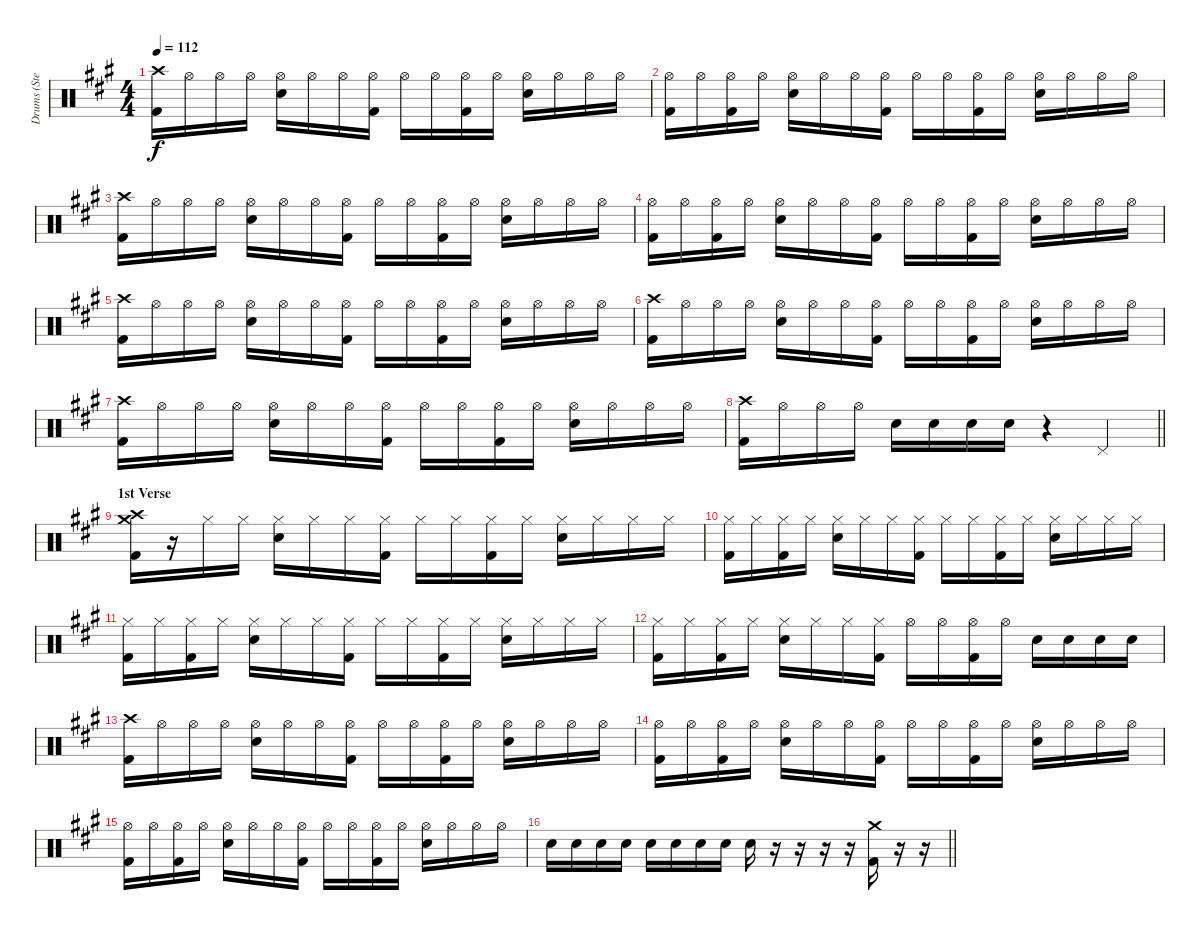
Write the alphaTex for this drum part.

\track ("Drums (Steven)" "Drums (Ste") {instrument percussion}
\staff {score}
\articulation defaults
\ts (4 4)
\tempo 112
\clef neutral
\ks f#minor
("Crash high (hit)" "Kick (hit) 2").16{dy f} "Hi-Hat (open)".16 "Hi-Hat (open)".16 "Hi-Hat (open)".16 ("Hi-Hat (open)" "Snare (hit) 2").16 "Hi-Hat (open)".16 "Hi-Hat (open)".16 ("Hi-Hat (open)" "Kick (hit) 2").16 "Hi-Hat (open)".16 "Hi-Hat (open)".16 ("Hi-Hat (open)" "Kick (hit) 2").16 "Hi-Hat (open)".16 ("Hi-Hat (open)" "Snare (hit) 2").16 "Hi-Hat (open)".16 "Hi-Hat (open)".16 "Hi-Hat (open)".16 |
("Hi-Hat (open)" "Kick (hit) 2").16 "Hi-Hat (open)".16 ("Hi-Hat (open)" "Kick (hit) 2").16 "Hi-Hat (open)".16 ("Hi-Hat (open)" "Snare (hit) 2").16 "Hi-Hat (open)".16 "Hi-Hat (open)".16 ("Hi-Hat (open)" "Kick (hit) 2").16 "Hi-Hat (open)".16 "Hi-Hat (open)".16 ("Hi-Hat (open)" "Kick (hit) 2").16 "Hi-Hat (open)".16 ("Hi-Hat (open)" "Snare (hit) 2").16 "Hi-Hat (open)".16 "Hi-Hat (open)".16 "Hi-Hat (open)".16 |
("Crash high (hit)" "Kick (hit) 2").16 "Hi-Hat (open)".16 "Hi-Hat (open)".16 "Hi-Hat (open)".16 ("Hi-Hat (open)" "Snare (hit) 2").16 "Hi-Hat (open)".16 "Hi-Hat (open)".16 ("Hi-Hat (open)" "Kick (hit) 2").16 "Hi-Hat (open)".16 "Hi-Hat (open)".16 ("Hi-Hat (open)" "Kick (hit) 2").16 "Hi-Hat (open)".16 ("Hi-Hat (open)" "Snare (hit) 2").16 "Hi-Hat (open)".16 "Hi-Hat (open)".16 "Hi-Hat (open)".16 |
("Hi-Hat (open)" "Kick (hit) 2").16 "Hi-Hat (open)".16 ("Hi-Hat (open)" "Kick (hit) 2").16 "Hi-Hat (open)".16 ("Hi-Hat (open)" "Snare (hit) 2").16 "Hi-Hat (open)".16 "Hi-Hat (open)".16 ("Hi-Hat (open)" "Kick (hit) 2").16 "Hi-Hat (open)".16 "Hi-Hat (open)".16 ("Hi-Hat (open)" "Kick (hit) 2").16 "Hi-Hat (open)".16 ("Hi-Hat (open)" "Snare (hit) 2").16 "Hi-Hat (open)".16 "Hi-Hat (open)".16 "Hi-Hat (open)".16 |
("Crash high (hit)" "Kick (hit) 2").16 "Hi-Hat (open)".16 "Hi-Hat (open)".16 "Hi-Hat (open)".16 ("Hi-Hat (open)" "Snare (hit) 2").16 "Hi-Hat (open)".16 "Hi-Hat (open)".16 ("Hi-Hat (open)" "Kick (hit) 2").16 "Hi-Hat (open)".16 "Hi-Hat (open)".16 ("Hi-Hat (open)" "Kick (hit) 2").16 "Hi-Hat (open)".16 ("Hi-Hat (open)" "Snare (hit) 2").16 "Hi-Hat (open)".16 "Hi-Hat (open)".16 "Hi-Hat (open)".16 |
("Crash high (hit)" "Kick (hit) 2").16 "Hi-Hat (open)".16 "Hi-Hat (open)".16 "Hi-Hat (open)".16 ("Hi-Hat (open)" "Snare (hit) 2").16 "Hi-Hat (open)".16 "Hi-Hat (open)".16 ("Hi-Hat (open)" "Kick (hit) 2").16 "Hi-Hat (open)".16 "Hi-Hat (open)".16 ("Hi-Hat (open)" "Kick (hit) 2").16 "Hi-Hat (open)".16 ("Hi-Hat (open)" "Snare (hit) 2").16 "Hi-Hat (open)".16 "Hi-Hat (open)".16 "Hi-Hat (open)".16 |
("Crash high (hit)" "Kick (hit) 2").16 "Hi-Hat (open)".16 "Hi-Hat (open)".16 "Hi-Hat (open)".16 ("Hi-Hat (open)" "Snare (hit) 2").16 "Hi-Hat (open)".16 "Hi-Hat (open)".16 ("Hi-Hat (open)" "Kick (hit) 2").16 "Hi-Hat (open)".16 "Hi-Hat (open)".16 ("Hi-Hat (open)" "Kick (hit) 2").16 "Hi-Hat (open)".16 ("Hi-Hat (open)" "Snare (hit) 2").16 "Hi-Hat (open)".16 "Hi-Hat (open)".16 "Hi-Hat (open)".16 |
\barLineRight lightlight
("Crash high (hit)" "Kick (hit) 2").16 "Hi-Hat (open)".16 "Hi-Hat (open)".16 "Hi-Hat (open)".16 "Snare (hit) 2".16 "Snare (hit) 2".16 "Snare (hit) 2".16 "Snare (hit) 2".16 r.4 "Pedal Hi-Hat (hit)".4 |
\section ("" "1st Verse")
("Crash high (hit)" "Crash medium (hit)" "Kick (hit) 2").16 r.16 "Hi-Hat (closed)".16 "Hi-Hat (closed)".16 ("Hi-Hat (closed)" "Snare (hit) 2").16 "Hi-Hat (closed)".16 "Hi-Hat (closed)".16 ("Hi-Hat (closed)" "Kick (hit) 2").16 "Hi-Hat (closed)".16 "Hi-Hat (closed)".16 ("Hi-Hat (closed)" "Kick (hit) 2").16 "Hi-Hat (closed)".16 ("Hi-Hat (closed)" "Snare (hit) 2").16 "Hi-Hat (closed)".16 "Hi-Hat (closed)".16 "Hi-Hat (closed)".16 |
("Hi-Hat (closed)" "Kick (hit) 2").16 "Hi-Hat (closed)".16 ("Hi-Hat (closed)" "Kick (hit) 2").16 "Hi-Hat (closed)".16 ("Hi-Hat (closed)" "Snare (hit) 2").16 "Hi-Hat (closed)".16 "Hi-Hat (closed)".16 ("Hi-Hat (closed)" "Kick (hit) 2").16 "Hi-Hat (closed)".16 "Hi-Hat (closed)".16 ("Hi-Hat (closed)" "Kick (hit) 2").16 "Hi-Hat (closed)".16 ("Hi-Hat (closed)" "Snare (hit) 2").16 "Hi-Hat (closed)".16 "Hi-Hat (closed)".16 "Hi-Hat (closed)".16 |
("Hi-Hat (closed)" "Kick (hit) 2").16 "Hi-Hat (closed)".16 ("Hi-Hat (closed)" "Kick (hit) 2").16 "Hi-Hat (closed)".16 ("Hi-Hat (closed)" "Snare (hit) 2").16 "Hi-Hat (closed)".16 "Hi-Hat (closed)".16 ("Hi-Hat (closed)" "Kick (hit) 2").16 "Hi-Hat (closed)".16 "Hi-Hat (closed)".16 ("Hi-Hat (closed)" "Kick (hit) 2").16 "Hi-Hat (closed)".16 ("Hi-Hat (closed)" "Snare (hit) 2").16 "Hi-Hat (closed)".16 "Hi-Hat (closed)".16 "Hi-Hat (closed)".16 |
("Hi-Hat (closed)" "Kick (hit) 2").16 "Hi-Hat (closed)".16 ("Hi-Hat (closed)" "Kick (hit) 2").16 "Hi-Hat (closed)".16 ("Hi-Hat (closed)" "Snare (hit) 2").16 "Hi-Hat (closed)".16 "Hi-Hat (closed)".16 ("Hi-Hat (closed)" "Kick (hit) 2").16 "Hi-Hat (open)".16 "Hi-Hat (open)".16 ("Hi-Hat (open)" "Kick (hit) 2").16 "Hi-Hat (open)".16 "Snare (hit) 2".16 "Snare (hit) 2".16 "Snare (hit) 2".16 "Snare (hit) 2".16 |
("Crash high (hit)" "Kick (hit) 2").16 "Hi-Hat (open)".16 "Hi-Hat (open)".16 "Hi-Hat (open)".16 ("Hi-Hat (open)" "Snare (hit) 2").16 "Hi-Hat (open)".16 "Hi-Hat (open)".16 ("Hi-Hat (open)" "Kick (hit) 2").16 "Hi-Hat (open)".16 "Hi-Hat (open)".16 ("Hi-Hat (open)" "Kick (hit) 2").16 "Hi-Hat (open)".16 ("Hi-Hat (open)" "Snare (hit) 2").16 "Hi-Hat (open)".16 "Hi-Hat (open)".16 "Hi-Hat (open)".16 |
("Hi-Hat (open)" "Kick (hit) 2").16 "Hi-Hat (open)".16 ("Hi-Hat (open)" "Kick (hit) 2").16 "Hi-Hat (open)".16 ("Hi-Hat (open)" "Snare (hit) 2").16 "Hi-Hat (open)".16 "Hi-Hat (open)".16 ("Hi-Hat (open)" "Kick (hit) 2").16 "Hi-Hat (open)".16 "Hi-Hat (open)".16 ("Hi-Hat (open)" "Kick (hit) 2").16 "Hi-Hat (open)".16 ("Hi-Hat (open)" "Snare (hit) 2").16 "Hi-Hat (open)".16 "Hi-Hat (open)".16 "Hi-Hat (open)".16 |
("Hi-Hat (open)" "Kick (hit) 2").16 "Hi-Hat (open)".16 ("Hi-Hat (open)" "Kick (hit) 2").16 "Hi-Hat (open)".16 ("Hi-Hat (open)" "Snare (hit) 2").16 "Hi-Hat (open)".16 "Hi-Hat (open)".16 ("Hi-Hat (open)" "Kick (hit) 2").16 "Hi-Hat (open)".16 "Hi-Hat (open)".16 ("Hi-Hat (open)" "Kick (hit) 2").16 "Hi-Hat (open)".16 ("Hi-Hat (open)" "Snare (hit) 2").16 "Hi-Hat (open)".16 "Hi-Hat (open)".16 "Hi-Hat (open)".16 |
\barLineRight lightlight "Snare (hit) 2".16 "Snare (hit) 2".16 "Snare (hit) 2".16 "Snare (hit) 2".16 "Snare (hit) 2".16 "Snare (hit) 2".16 "Snare (hit) 2".16 "Snare (hit) 2".16 "Snare (hit) 2".16
r.16 r.16 r.16 r.16 ("Crash medium (hit)" "Kick (hit) 2").16 r.16 r.16
